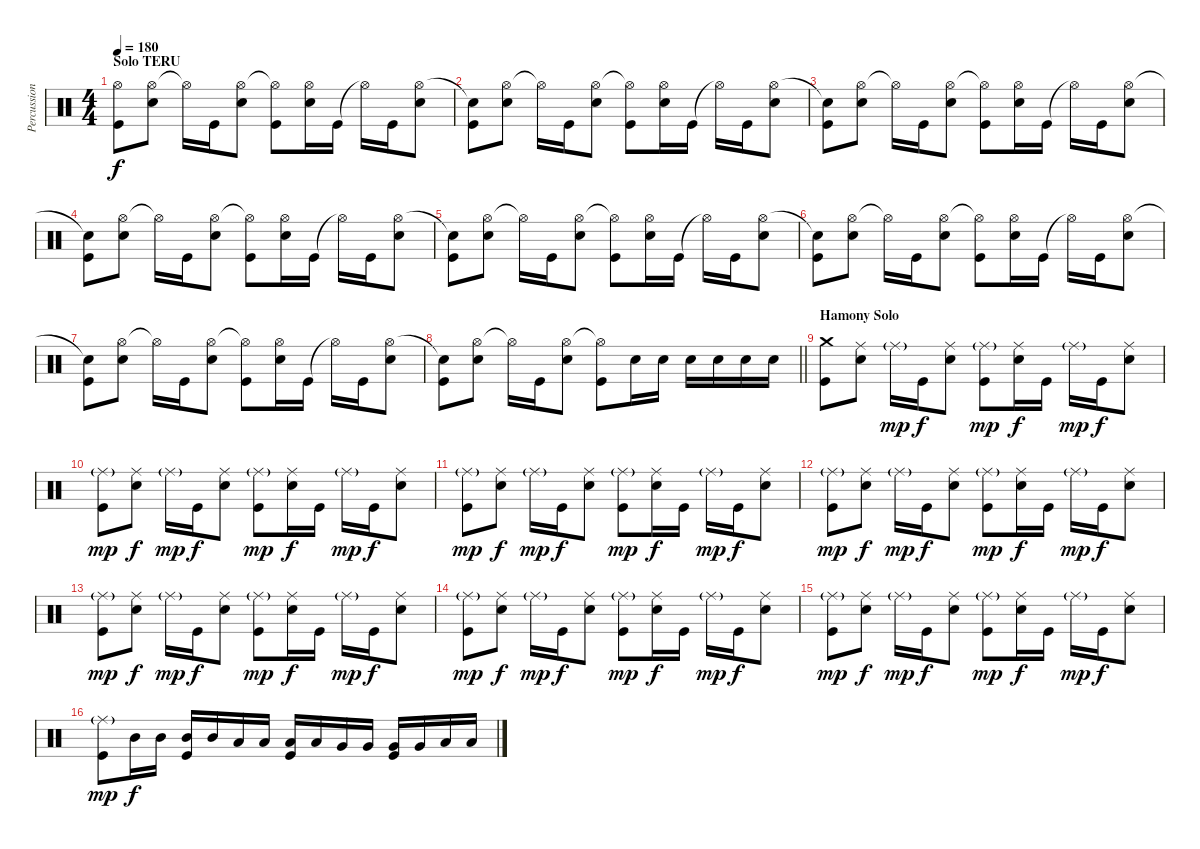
\track ("Percussion" "Percussion") {instrument percussion}
\staff {score}
\articulation defaults
\ts (4 4)
\section ("" "Solo TERU")
\tempo 180
\clef neutral
\ks c
("Hi-Hat (open)" "Kick (hit)").8{dy f} ("Hi-Hat (open)" "Electric Snare (hit)").8 "Hi-Hat (open)"{t}.16 "Kick (hit)".16 ("Hi-Hat (open)" "Electric Snare (hit)").8 ("Hi-Hat (open)"{t} "Kick (hit)").8 ("Hi-Hat (open)" "Electric Snare (hit)").16 "Kick (hit)".16 "Hi-Hat (open)"{t}.16 "Kick (hit)".16 ("Hi-Hat (open)" "Electric Snare (hit)").8 |
("Snare (hit)"{t} "Kick (hit)").8 ("Hi-Hat (open)" "Electric Snare (hit)").8 "Hi-Hat (open)"{t}.16 "Kick (hit)".16 ("Hi-Hat (open)" "Electric Snare (hit)").8 ("Hi-Hat (open)"{t} "Kick (hit)").8 ("Hi-Hat (open)" "Electric Snare (hit)").16 "Kick (hit)".16 "Hi-Hat (open)"{t}.16 "Kick (hit)".16 ("Hi-Hat (open)" "Electric Snare (hit)").8 |
("Snare (hit)"{t} "Kick (hit)").8 ("Hi-Hat (open)" "Electric Snare (hit)").8 "Hi-Hat (open)"{t}.16 "Kick (hit)".16 ("Hi-Hat (open)" "Electric Snare (hit)").8 ("Hi-Hat (open)"{t} "Kick (hit)").8 ("Hi-Hat (open)" "Electric Snare (hit)").16 "Kick (hit)".16 "Hi-Hat (open)"{t}.16 "Kick (hit)".16 ("Hi-Hat (open)" "Electric Snare (hit)").8 |
("Snare (hit)"{t} "Kick (hit)").8 ("Hi-Hat (open)" "Electric Snare (hit)").8 "Hi-Hat (open)"{t}.16 "Kick (hit)".16 ("Hi-Hat (open)" "Electric Snare (hit)").8 ("Hi-Hat (open)"{t} "Kick (hit)").8 ("Hi-Hat (open)" "Electric Snare (hit)").16 "Kick (hit)".16 "Hi-Hat (open)"{t}.16 "Kick (hit)".16 ("Hi-Hat (open)" "Electric Snare (hit)").8 |
("Snare (hit)"{t} "Kick (hit)").8 ("Hi-Hat (open)" "Electric Snare (hit)").8 "Hi-Hat (open)"{t}.16 "Kick (hit)".16 ("Hi-Hat (open)" "Electric Snare (hit)").8 ("Hi-Hat (open)"{t} "Kick (hit)").8 ("Hi-Hat (open)" "Electric Snare (hit)").16 "Kick (hit)".16 "Hi-Hat (open)"{t}.16 "Kick (hit)".16 ("Hi-Hat (open)" "Electric Snare (hit)").8 |
("Snare (hit)"{t} "Kick (hit)").8 ("Hi-Hat (open)" "Electric Snare (hit)").8 "Hi-Hat (open)"{t}.16 "Kick (hit)".16 ("Hi-Hat (open)" "Electric Snare (hit)").8 ("Hi-Hat (open)"{t} "Kick (hit)").8 ("Hi-Hat (open)" "Electric Snare (hit)").16 "Kick (hit)".16 "Hi-Hat (open)"{t}.16 "Kick (hit)".16 ("Hi-Hat (open)" "Electric Snare (hit)").8 |
("Snare (hit)"{t} "Kick (hit)").8 ("Hi-Hat (open)" "Electric Snare (hit)").8 "Hi-Hat (open)"{t}.16 "Kick (hit)".16 ("Hi-Hat (open)" "Electric Snare (hit)").8 ("Hi-Hat (open)"{t} "Kick (hit)").8 ("Hi-Hat (open)" "Electric Snare (hit)").16 "Kick (hit)".16 "Hi-Hat (open)"{t}.16 "Kick (hit)".16 ("Hi-Hat (open)" "Electric Snare (hit)").8 |
\barLineRight lightlight
("Snare (hit)"{t} "Kick (hit)").8 ("Hi-Hat (open)" "Electric Snare (hit)").8 "Hi-Hat (open)"{t}.16 "Kick (hit)".16 ("Hi-Hat (open)" "Electric Snare (hit)").8 ("Hi-Hat (open)"{t} "Kick (hit)").8 "Electric Snare (hit)".16 "Electric Snare (hit)".16 "Electric Snare (hit)".16 "Electric Snare (hit)".16 "Electric Snare (hit)".16 "Electric Snare (hit)".16 |
\section ("" "Hamony Solo")
("Crash medium (hit)" "Kick (hit)").8 ("Ride (middle)" "Electric Snare (hit)").8 "Ride (middle)"{g}.16{dy mp} "Kick (hit)".16{dy f} ("Ride (middle)" "Electric Snare (hit)").8 ("Ride (middle)"{g} "Kick (hit)").8{dy mp} ("Ride (middle)" "Electric Snare (hit)").16{dy f} "Kick (hit)".16 "Ride (middle)"{g}.16{dy mp} "Kick (hit)".16{dy f} ("Ride (middle)" "Electric Snare (hit)").8 |
("Ride (middle)"{g} "Kick (hit)").8{dy mp} ("Ride (middle)" "Electric Snare (hit)").8{dy f} "Ride (middle)"{g}.16{dy mp} "Kick (hit)".16{dy f} ("Ride (middle)" "Electric Snare (hit)").8 ("Ride (middle)"{g} "Kick (hit)").8{dy mp} ("Ride (middle)" "Electric Snare (hit)").16{dy f} "Kick (hit)".16 "Ride (middle)"{g}.16{dy mp} "Kick (hit)".16{dy f} ("Ride (middle)" "Electric Snare (hit)").8 |
("Ride (middle)"{g} "Kick (hit)").8{dy mp} ("Ride (middle)" "Electric Snare (hit)").8{dy f} "Ride (middle)"{g}.16{dy mp} "Kick (hit)".16{dy f} ("Ride (middle)" "Electric Snare (hit)").8 ("Ride (middle)"{g} "Kick (hit)").8{dy mp} ("Ride (middle)" "Electric Snare (hit)").16{dy f} "Kick (hit)".16 "Ride (middle)"{g}.16{dy mp} "Kick (hit)".16{dy f} ("Ride (middle)" "Electric Snare (hit)").8 |
("Ride (middle)"{g} "Kick (hit)").8{dy mp} ("Ride (middle)" "Electric Snare (hit)").8{dy f} "Ride (middle)"{g}.16{dy mp} "Kick (hit)".16{dy f} ("Ride (middle)" "Electric Snare (hit)").8 ("Ride (middle)"{g} "Kick (hit)").8{dy mp} ("Ride (middle)" "Electric Snare (hit)").16{dy f} "Kick (hit)".16 "Ride (middle)"{g}.16{dy mp} "Kick (hit)".16{dy f} ("Ride (middle)" "Electric Snare (hit)").8 |
("Ride (middle)"{g} "Kick (hit)").8{dy mp} ("Ride (middle)" "Electric Snare (hit)").8{dy f} "Ride (middle)"{g}.16{dy mp} "Kick (hit)".16{dy f} ("Ride (middle)" "Electric Snare (hit)").8 ("Ride (middle)"{g} "Kick (hit)").8{dy mp} ("Ride (middle)" "Electric Snare (hit)").16{dy f} "Kick (hit)".16 "Ride (middle)"{g}.16{dy mp} "Kick (hit)".16{dy f} ("Ride (middle)" "Electric Snare (hit)").8 |
("Ride (middle)"{g} "Kick (hit)").8{dy mp} ("Ride (middle)" "Electric Snare (hit)").8{dy f} "Ride (middle)"{g}.16{dy mp} "Kick (hit)".16{dy f} ("Ride (middle)" "Electric Snare (hit)").8 ("Ride (middle)"{g} "Kick (hit)").8{dy mp} ("Ride (middle)" "Electric Snare (hit)").16{dy f} "Kick (hit)".16 "Ride (middle)"{g}.16{dy mp} "Kick (hit)".16{dy f} ("Ride (middle)" "Electric Snare (hit)").8 |
("Ride (middle)"{g} "Kick (hit)").8{dy mp} ("Ride (middle)" "Electric Snare (hit)").8{dy f} "Ride (middle)"{g}.16{dy mp} "Kick (hit)".16{dy f} ("Ride (middle)" "Electric Snare (hit)").8 ("Ride (middle)"{g} "Kick (hit)").8{dy mp} ("Ride (middle)" "Electric Snare (hit)").16{dy f} "Kick (hit)".16 "Ride (middle)"{g}.16{dy mp} "Kick (hit)".16{dy f} ("Ride (middle)" "Electric Snare (hit)").8 |
("Ride (middle)"{g} "Kick (hit)").8{dy mp} "Mid Tom (hit)".16{dy f} "Mid Tom (hit)".16 ("Mid Tom (hit)" "Kick (hit)").16 "Mid Tom (hit)".16 "Low Tom (hit)".16 "Low Tom (hit)".16 ("Low Tom (hit)" "Kick (hit)").16 "Low Tom (hit)".16 "Very Low Tom (hit)".16 "Very Low Tom (hit)".16 ("Very Low Tom (hit)" "Kick (hit)").16 "Very Low Tom (hit)".16 "Low Floor Tom (hit)".16 "Low Floor Tom (hit)".16
